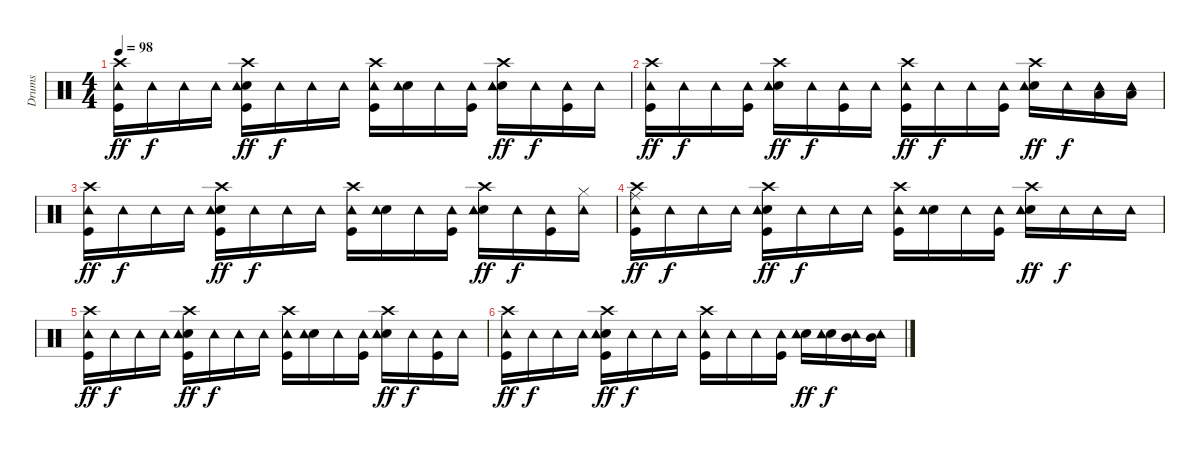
\track ("Drums" "Drums") {instrument percussion}
\staff {score}
\articulation defaults
\ts (4 4)
\tempo 98
\clef neutral
\ks c
("Crash high (hit)" "Kick (hit)" "Tambourine (hit)").16{dy ff} "Tambourine (hit)".16{dy f} "Tambourine (hit)".16 "Tambourine (hit)".16 ("Crash high (hit)" "Kick (hit)" "Electric Snare (hit)" "Tambourine (hit)").16{dy ff} "Tambourine (hit)".16{dy f} "Tambourine (hit)".16 "Tambourine (hit)".16 ("Crash high (hit)" "Kick (hit)" "Tambourine (hit)").16 ("Electric Snare (hit)" "Tambourine (hit)").16 "Tambourine (hit)".16 ("Kick (hit)" "Tambourine (hit)").16 ("Crash high (hit)" "Electric Snare (hit)" "Tambourine (hit)").16{dy ff} "Tambourine (hit)".16{dy f} ("Kick (hit)" "Tambourine (hit)").16 "Tambourine (hit)".16 |
("Crash high (hit)" "Kick (hit)" "Tambourine (hit)").16{dy ff} "Tambourine (hit)".16{dy f} "Tambourine (hit)".16 ("Kick (hit)" "Tambourine (hit)").16 ("Crash high (hit)" "Electric Snare (hit)" "Tambourine (hit)").16{dy ff} "Tambourine (hit)".16{dy f} ("Kick (hit)" "Tambourine (hit)").16 "Tambourine (hit)".16 ("Crash high (hit)" "Kick (hit)" "Tambourine (hit)").16{dy ff} "Tambourine (hit)".16{dy f} "Tambourine (hit)".16 ("Kick (hit)" "Tambourine (hit)").16 ("Crash high (hit)" "Electric Snare (hit)" "Tambourine (hit)").16{dy ff} "Tambourine (hit)".16{dy f} ("Low Tom (hit)" "Tambourine (hit)").16 ("Low Tom (hit)" "Tambourine (hit)").16 |
("Crash high (hit)" "Kick (hit)" "Tambourine (hit)").16{dy ff} "Tambourine (hit)".16{dy f} "Tambourine (hit)".16 "Tambourine (hit)".16 ("Crash high (hit)" "Kick (hit)" "Electric Snare (hit)" "Tambourine (hit)").16{dy ff} "Tambourine (hit)".16{dy f} "Tambourine (hit)".16 "Tambourine (hit)".16 ("Crash high (hit)" "Kick (hit)" "Tambourine (hit)").16 ("Electric Snare (hit)" "Tambourine (hit)").16 "Tambourine (hit)".16 ("Kick (hit)" "Tambourine (hit)").16 ("Crash high (hit)" "Electric Snare (hit)" "Tambourine (hit)").16{dy ff} "Tambourine (hit)".16{dy f} ("Kick (hit)" "Tambourine (hit)").16 ("Hi-Hat (closed)" "Tambourine (hit)").16 |
("Crash high (hit)" "Kick (hit)" "Ride (middle)" "Tambourine (hit)").16{dy ff volume 0} "Tambourine (hit)".16{dy f} "Tambourine (hit)".16 "Tambourine (hit)".16 ("Crash high (hit)" "Kick (hit)" "Electric Snare (hit)" "Tambourine (hit)").16{dy ff} "Tambourine (hit)".16{dy f} "Tambourine (hit)".16 "Tambourine (hit)".16 ("Crash high (hit)" "Kick (hit)" "Tambourine (hit)").16 ("Electric Snare (hit)" "Tambourine (hit)").16 "Tambourine (hit)".16 ("Kick (hit)" "Tambourine (hit)").16 ("Crash high (hit)" "Electric Snare (hit)" "Tambourine (hit)").16{dy ff} "Tambourine (hit)".16{dy f} "Tambourine (hit)".16 "Tambourine (hit)".16 |
("Crash high (hit)" "Kick (hit)" "Tambourine (hit)").16{dy ff} "Tambourine (hit)".16{dy f} "Tambourine (hit)".16 "Tambourine (hit)".16 ("Crash high (hit)" "Kick (hit)" "Electric Snare (hit)" "Tambourine (hit)").16{dy ff} "Tambourine (hit)".16{dy f} "Tambourine (hit)".16 "Tambourine (hit)".16 ("Crash high (hit)" "Kick (hit)" "Tambourine (hit)").16 ("Electric Snare (hit)" "Tambourine (hit)").16 "Tambourine (hit)".16 ("Kick (hit)" "Tambourine (hit)").16 ("Crash high (hit)" "Electric Snare (hit)" "Tambourine (hit)").16{dy ff} "Tambourine (hit)".16{dy f} ("Kick (hit)" "Tambourine (hit)").16 "Tambourine (hit)".16 |
("Crash high (hit)" "Kick (hit)" "Tambourine (hit)").16{dy ff} "Tambourine (hit)".16{dy f} "Tambourine (hit)".16 "Tambourine (hit)".16 ("Crash high (hit)" "Kick (hit)" "Electric Snare (hit)" "Tambourine (hit)").16{dy ff} "Tambourine (hit)".16{dy f} "Tambourine (hit)".16 "Tambourine (hit)".16 ("Crash high (hit)" "Kick (hit)" "Tambourine (hit)").16 "Tambourine (hit)".16 "Tambourine (hit)".16 ("Kick (hit)" "Tambourine (hit)").16 ("Electric Snare (hit)" "Tambourine (hit)").16{dy ff} ("Electric Snare (hit)" "Tambourine (hit)").16{dy f} ("Mid Tom (hit)" "Tambourine (hit)").16 ("Mid Tom (hit)" "Tambourine (hit)").16
